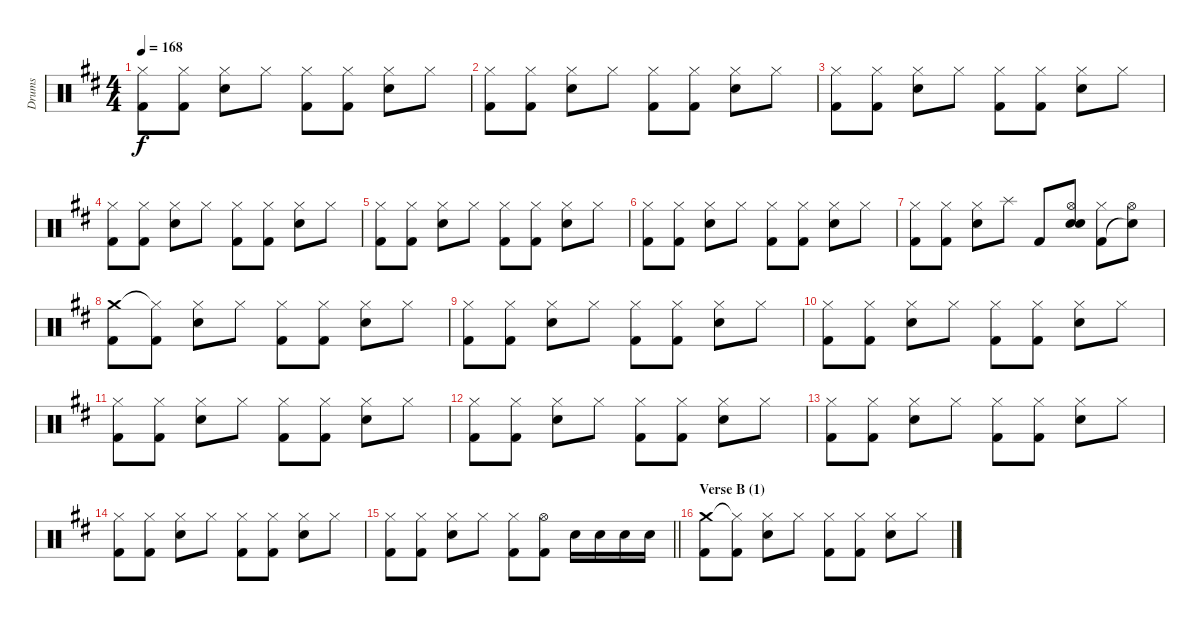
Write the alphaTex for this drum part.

\track ("Drums" "Drums") {instrument percussion}
\staff {score}
\articulation defaults
\ts (4 4)
\tempo 168
\clef neutral
\ks d
("Hi-Hat (closed)" "Kick (hit) 2").8{dy f} ("Hi-Hat (closed)" "Kick (hit) 2").8 ("Hi-Hat (closed)" "Electric Snare (hit)").8 "Hi-Hat (closed)".8 ("Hi-Hat (closed)" "Kick (hit) 2").8 ("Hi-Hat (closed)" "Kick (hit) 2").8 ("Hi-Hat (closed)" "Electric Snare (hit)").8 "Hi-Hat (closed)".8 |
("Hi-Hat (closed)" "Kick (hit) 2").8 ("Hi-Hat (closed)" "Kick (hit) 2").8 ("Hi-Hat (closed)" "Electric Snare (hit)").8 "Hi-Hat (closed)".8 ("Hi-Hat (closed)" "Kick (hit) 2").8 ("Hi-Hat (closed)" "Kick (hit) 2").8 ("Hi-Hat (closed)" "Electric Snare (hit)").8 "Hi-Hat (closed)".8 |
("Hi-Hat (closed)" "Kick (hit) 2").8 ("Hi-Hat (closed)" "Kick (hit) 2").8 ("Hi-Hat (closed)" "Electric Snare (hit)").8 "Hi-Hat (closed)".8 ("Hi-Hat (closed)" "Kick (hit) 2").8 ("Hi-Hat (closed)" "Kick (hit) 2").8 ("Hi-Hat (closed)" "Electric Snare (hit)").8 "Hi-Hat (closed)".8 |
("Hi-Hat (closed)" "Kick (hit) 2").8 ("Hi-Hat (closed)" "Kick (hit) 2").8 ("Hi-Hat (closed)" "Electric Snare (hit)").8 "Hi-Hat (closed)".8 ("Hi-Hat (closed)" "Kick (hit) 2").8 ("Hi-Hat (closed)" "Kick (hit) 2").8 ("Hi-Hat (closed)" "Electric Snare (hit)").8 "Hi-Hat (closed)".8 |
("Hi-Hat (closed)" "Kick (hit) 2").8 ("Hi-Hat (closed)" "Kick (hit) 2").8 ("Hi-Hat (closed)" "Electric Snare (hit)").8 "Hi-Hat (closed)".8 ("Hi-Hat (closed)" "Kick (hit) 2").8 ("Hi-Hat (closed)" "Kick (hit) 2").8 ("Hi-Hat (closed)" "Electric Snare (hit)").8 "Hi-Hat (closed)".8 |
("Hi-Hat (closed)" "Kick (hit) 2").8 ("Hi-Hat (closed)" "Kick (hit) 2").8 ("Hi-Hat (closed)" "Electric Snare (hit)").8 "Hi-Hat (closed)".8 ("Hi-Hat (closed)" "Kick (hit) 2").8 ("Hi-Hat (closed)" "Kick (hit) 2").8 ("Hi-Hat (closed)" "Electric Snare (hit)").8 "Hi-Hat (closed)".8 |
("Hi-Hat (closed)" "Kick (hit) 2").8 ("Hi-Hat (closed)" "Kick (hit) 2").8 ("Hi-Hat (closed)" "Electric Snare (hit)").8 "Splash (hit)".8 "Kick (hit) 2".8 ("Hi-Hat (open)" "Electric Snare (hit)" "Snare (hit)").8 ("Hi-Hat (closed)" "Kick (hit) 2").8 ("Hi-Hat (open)" "Snare (hit)"{t}).8 |
("Crash medium (hit)" "Kick (hit) 2").8 ("Hi-Hat (closed)"{t} "Kick (hit) 2").8 ("Hi-Hat (closed)" "Electric Snare (hit)").8 "Hi-Hat (closed)".8 ("Hi-Hat (closed)" "Kick (hit) 2").8 ("Hi-Hat (closed)" "Kick (hit) 2").8 ("Hi-Hat (closed)" "Electric Snare (hit)").8 "Hi-Hat (closed)".8 |
("Hi-Hat (closed)" "Kick (hit) 2").8 ("Hi-Hat (closed)" "Kick (hit) 2").8 ("Hi-Hat (closed)" "Electric Snare (hit)").8 "Hi-Hat (closed)".8 ("Hi-Hat (closed)" "Kick (hit) 2").8 ("Hi-Hat (closed)" "Kick (hit) 2").8 ("Hi-Hat (closed)" "Electric Snare (hit)").8 "Hi-Hat (closed)".8 |
("Hi-Hat (closed)" "Kick (hit) 2").8 ("Hi-Hat (closed)" "Kick (hit) 2").8 ("Hi-Hat (closed)" "Electric Snare (hit)").8 "Hi-Hat (closed)".8 ("Hi-Hat (closed)" "Kick (hit) 2").8 ("Hi-Hat (closed)" "Kick (hit) 2").8 ("Hi-Hat (closed)" "Electric Snare (hit)").8 "Hi-Hat (closed)".8 |
("Hi-Hat (closed)" "Kick (hit) 2").8 ("Hi-Hat (closed)" "Kick (hit) 2").8 ("Hi-Hat (closed)" "Electric Snare (hit)").8 "Hi-Hat (closed)".8 ("Hi-Hat (closed)" "Kick (hit) 2").8 ("Hi-Hat (closed)" "Kick (hit) 2").8 ("Hi-Hat (closed)" "Electric Snare (hit)").8 "Hi-Hat (closed)".8 |
("Hi-Hat (closed)" "Kick (hit) 2").8 ("Hi-Hat (closed)" "Kick (hit) 2").8 ("Hi-Hat (closed)" "Electric Snare (hit)").8 "Hi-Hat (closed)".8 ("Hi-Hat (closed)" "Kick (hit) 2").8 ("Hi-Hat (closed)" "Kick (hit) 2").8 ("Hi-Hat (closed)" "Electric Snare (hit)").8 "Hi-Hat (closed)".8 |
("Hi-Hat (closed)" "Kick (hit) 2").8 ("Hi-Hat (closed)" "Kick (hit) 2").8 ("Hi-Hat (closed)" "Electric Snare (hit)").8 "Hi-Hat (closed)".8 ("Hi-Hat (closed)" "Kick (hit) 2").8 ("Hi-Hat (closed)" "Kick (hit) 2").8 ("Hi-Hat (closed)" "Electric Snare (hit)").8 "Hi-Hat (closed)".8 |
("Hi-Hat (closed)" "Kick (hit) 2").8 ("Hi-Hat (closed)" "Kick (hit) 2").8 ("Hi-Hat (closed)" "Electric Snare (hit)").8 "Hi-Hat (closed)".8 ("Hi-Hat (closed)" "Kick (hit) 2").8 ("Hi-Hat (closed)" "Kick (hit) 2").8 ("Hi-Hat (closed)" "Electric Snare (hit)").8 "Hi-Hat (closed)".8 |
\barLineRight lightlight
("Hi-Hat (closed)" "Kick (hit) 2").8 ("Hi-Hat (closed)" "Kick (hit) 2").8 ("Hi-Hat (closed)" "Electric Snare (hit)").8 "Hi-Hat (closed)".8 ("Hi-Hat (closed)" "Kick (hit) 2").8 ("Hi-Hat (open)" "Kick (hit) 2").8 "Electric Snare (hit)".16 "Electric Snare (hit)".16 "Electric Snare (hit)".16 "Electric Snare (hit)".16 |
\section ("" "Verse B (1)")
("Crash medium (hit)" "Kick (hit) 2").8 ("Hi-Hat (closed)"{t} "Kick (hit) 2").8 ("Hi-Hat (closed)" "Electric Snare (hit)").8 "Hi-Hat (closed)".8 ("Hi-Hat (closed)" "Kick (hit) 2").8 ("Hi-Hat (closed)" "Kick (hit) 2").8 ("Hi-Hat (closed)" "Electric Snare (hit)").8 "Hi-Hat (closed)".8
